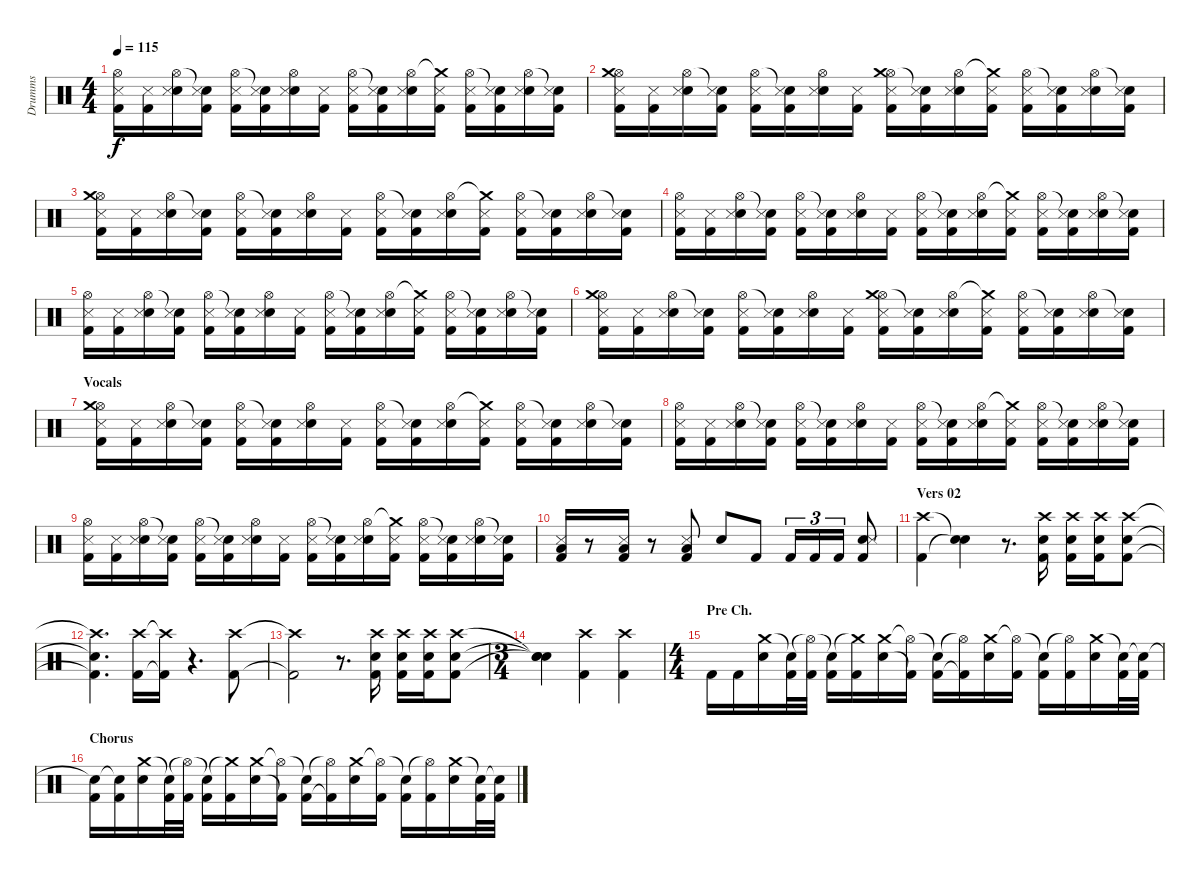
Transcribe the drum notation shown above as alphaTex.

\track ("Drumms" "Drumms") {instrument percussion}
\staff {score}
\articulation defaults
\ts (4 4)
\tempo 115
\clef neutral
\ks c
("Hi-Hat (open)" "Kick (hit) 2" "Snare (side stick) 3").16{dy f} ("Kick (hit) 2" "Snare (side stick) 3").16 ("Hi-Hat (open)" "Electric Snare (hit)" "Snare (side stick) 3").16 ("Snare (hit)"{t} "Kick (hit) 2" "Snare (side stick) 3").16 ("Hi-Hat (open)" "Kick (hit) 2" "Snare (side stick) 3").16 ("Snare (hit)"{t} "Kick (hit) 2" "Snare (side stick) 3").16 ("Hi-Hat (open)" "Electric Snare (hit)" "Snare (side stick) 3").16 ("Kick (hit) 2" "Snare (side stick) 3").16 ("Hi-Hat (open)" "Kick (hit) 2" "Snare (side stick) 3").16 ("Snare (hit)"{t} "Kick (hit) 2" "Snare (side stick) 3").16 ("Hi-Hat (open)" "Electric Snare (hit)" "Snare (side stick) 3").16 ("Crash medium (hit)"{t} "Kick (hit) 2" "Snare (side stick) 3").16 ("Hi-Hat (open)" "Kick (hit) 2" "Snare (side stick) 3").16 ("Snare (hit)"{t} "Kick (hit) 2" "Snare (side stick) 3").16 ("Hi-Hat (open)" "Electric Snare (hit)" "Snare (side stick) 3").16 ("Snare (hit)"{t} "Kick (hit) 2" "Snare (side stick) 3").16 |
("Hi-Hat (open)" "Crash medium (hit)" "Kick (hit) 2" "Snare (side stick) 3").16 ("Kick (hit) 2" "Snare (side stick) 3").16 ("Hi-Hat (open)" "Electric Snare (hit)" "Snare (side stick) 3").16 ("Snare (hit)"{t} "Kick (hit) 2" "Snare (side stick) 3").16 ("Hi-Hat (open)" "Kick (hit) 2" "Snare (side stick) 3").16 ("Snare (hit)"{t} "Kick (hit) 2" "Snare (side stick) 3").16 ("Hi-Hat (open)" "Electric Snare (hit)" "Snare (side stick) 3").16 ("Kick (hit) 2" "Snare (side stick) 3").16 ("Hi-Hat (open)" "Crash medium (hit)" "Kick (hit) 2" "Snare (side stick) 3").16 ("Snare (hit)"{t} "Kick (hit) 2" "Snare (side stick) 3").16 ("Hi-Hat (open)" "Electric Snare (hit)" "Snare (side stick) 3").16 ("Crash medium (hit)"{t} "Kick (hit) 2" "Snare (side stick) 3").16 ("Hi-Hat (open)" "Kick (hit) 2" "Snare (side stick) 3").16 ("Snare (hit)"{t} "Kick (hit) 2" "Snare (side stick) 3").16 ("Hi-Hat (open)" "Electric Snare (hit)" "Snare (side stick) 3").16 ("Snare (hit)"{t} "Kick (hit) 2" "Snare (side stick) 3").16 |
("Hi-Hat (open)" "Crash medium (hit)" "Kick (hit) 2" "Snare (side stick) 3").16 ("Kick (hit) 2" "Snare (side stick) 3").16 ("Hi-Hat (open)" "Electric Snare (hit)" "Snare (side stick) 3").16 ("Snare (hit)"{t} "Kick (hit) 2" "Snare (side stick) 3").16 ("Hi-Hat (open)" "Kick (hit) 2" "Snare (side stick) 3").16 ("Snare (hit)"{t} "Kick (hit) 2" "Snare (side stick) 3").16 ("Hi-Hat (open)" "Electric Snare (hit)" "Snare (side stick) 3").16 ("Kick (hit) 2" "Snare (side stick) 3").16 ("Hi-Hat (open)" "Kick (hit) 2" "Snare (side stick) 3").16 ("Snare (hit)"{t} "Kick (hit) 2" "Snare (side stick) 3").16 ("Hi-Hat (open)" "Electric Snare (hit)" "Snare (side stick) 3").16 ("Crash medium (hit)"{t} "Kick (hit) 2" "Snare (side stick) 3").16 ("Hi-Hat (open)" "Kick (hit) 2" "Snare (side stick) 3").16 ("Snare (hit)"{t} "Kick (hit) 2" "Snare (side stick) 3").16 ("Hi-Hat (open)" "Electric Snare (hit)" "Snare (side stick) 3").16 ("Snare (hit)"{t} "Kick (hit) 2" "Snare (side stick) 3").16 |
("Hi-Hat (open)" "Kick (hit) 2" "Snare (side stick) 3").16 ("Kick (hit) 2" "Snare (side stick) 3").16 ("Hi-Hat (open)" "Electric Snare (hit)" "Snare (side stick) 3").16 ("Snare (hit)"{t} "Kick (hit) 2" "Snare (side stick) 3").16 ("Hi-Hat (open)" "Kick (hit) 2" "Snare (side stick) 3").16 ("Snare (hit)"{t} "Kick (hit) 2" "Snare (side stick) 3").16 ("Hi-Hat (open)" "Electric Snare (hit)" "Snare (side stick) 3").16 ("Kick (hit) 2" "Snare (side stick) 3").16 ("Hi-Hat (open)" "Kick (hit) 2" "Snare (side stick) 3").16 ("Snare (hit)"{t} "Kick (hit) 2" "Snare (side stick) 3").16 ("Hi-Hat (open)" "Electric Snare (hit)" "Snare (side stick) 3").16 ("Crash medium (hit)"{t} "Kick (hit) 2" "Snare (side stick) 3").16 ("Hi-Hat (open)" "Kick (hit) 2" "Snare (side stick) 3").16 ("Snare (hit)"{t} "Kick (hit) 2" "Snare (side stick) 3").16 ("Hi-Hat (open)" "Electric Snare (hit)" "Snare (side stick) 3").16 ("Snare (hit)"{t} "Kick (hit) 2" "Snare (side stick) 3").16 |
("Hi-Hat (open)" "Kick (hit) 2" "Snare (side stick) 3").16 ("Kick (hit) 2" "Snare (side stick) 3").16 ("Hi-Hat (open)" "Electric Snare (hit)" "Snare (side stick) 3").16 ("Snare (hit)"{t} "Kick (hit) 2" "Snare (side stick) 3").16 ("Hi-Hat (open)" "Kick (hit) 2" "Snare (side stick) 3").16 ("Snare (hit)"{t} "Kick (hit) 2" "Snare (side stick) 3").16 ("Hi-Hat (open)" "Electric Snare (hit)" "Snare (side stick) 3").16 ("Kick (hit) 2" "Snare (side stick) 3").16 ("Hi-Hat (open)" "Kick (hit) 2" "Snare (side stick) 3").16 ("Snare (hit)"{t} "Kick (hit) 2" "Snare (side stick) 3").16 ("Hi-Hat (open)" "Electric Snare (hit)" "Snare (side stick) 3").16 ("Crash medium (hit)"{t} "Kick (hit) 2" "Snare (side stick) 3").16 ("Hi-Hat (open)" "Kick (hit) 2" "Snare (side stick) 3").16 ("Snare (hit)"{t} "Kick (hit) 2" "Snare (side stick) 3").16 ("Hi-Hat (open)" "Electric Snare (hit)" "Snare (side stick) 3").16 ("Snare (hit)"{t} "Kick (hit) 2" "Snare (side stick) 3").16 |
("Hi-Hat (open)" "Crash medium (hit)" "Kick (hit) 2" "Snare (side stick) 3").16 ("Kick (hit) 2" "Snare (side stick) 3").16 ("Hi-Hat (open)" "Electric Snare (hit)" "Snare (side stick) 3").16 ("Snare (hit)"{t} "Kick (hit) 2" "Snare (side stick) 3").16 ("Hi-Hat (open)" "Kick (hit) 2" "Snare (side stick) 3").16 ("Snare (hit)"{t} "Kick (hit) 2" "Snare (side stick) 3").16 ("Hi-Hat (open)" "Electric Snare (hit)" "Snare (side stick) 3").16 ("Kick (hit) 2" "Snare (side stick) 3").16 ("Hi-Hat (open)" "Crash medium (hit)" "Kick (hit) 2" "Snare (side stick) 3").16 ("Snare (hit)"{t} "Kick (hit) 2" "Snare (side stick) 3").16 ("Hi-Hat (open)" "Electric Snare (hit)" "Snare (side stick) 3").16 ("Crash medium (hit)"{t} "Kick (hit) 2" "Snare (side stick) 3").16 ("Hi-Hat (open)" "Kick (hit) 2" "Snare (side stick) 3").16 ("Snare (hit)"{t} "Kick (hit) 2" "Snare (side stick) 3").16 ("Hi-Hat (open)" "Electric Snare (hit)" "Snare (side stick) 3").16 ("Snare (hit)"{t} "Kick (hit) 2" "Snare (side stick) 3").16 |
\section ("" "Vocals")
("Hi-Hat (open)" "Crash medium (hit)" "Kick (hit) 2" "Snare (side stick) 3").16 ("Kick (hit) 2" "Snare (side stick) 3").16 ("Hi-Hat (open)" "Electric Snare (hit)" "Snare (side stick) 3").16 ("Snare (hit)"{t} "Kick (hit) 2" "Snare (side stick) 3").16 ("Hi-Hat (open)" "Kick (hit) 2" "Snare (side stick) 3").16 ("Snare (hit)"{t} "Kick (hit) 2" "Snare (side stick) 3").16 ("Hi-Hat (open)" "Electric Snare (hit)" "Snare (side stick) 3").16 ("Kick (hit) 2" "Snare (side stick) 3").16 ("Hi-Hat (open)" "Kick (hit) 2" "Snare (side stick) 3").16 ("Snare (hit)"{t} "Kick (hit) 2" "Snare (side stick) 3").16 ("Hi-Hat (open)" "Electric Snare (hit)" "Snare (side stick) 3").16 ("Crash medium (hit)"{t} "Kick (hit) 2" "Snare (side stick) 3").16 ("Hi-Hat (open)" "Kick (hit) 2" "Snare (side stick) 3").16 ("Snare (hit)"{t} "Kick (hit) 2" "Snare (side stick) 3").16 ("Hi-Hat (open)" "Electric Snare (hit)" "Snare (side stick) 3").16 ("Snare (hit)"{t} "Kick (hit) 2" "Snare (side stick) 3").16 |
("Hi-Hat (open)" "Kick (hit) 2" "Snare (side stick) 3").16 ("Kick (hit) 2" "Snare (side stick) 3").16 ("Hi-Hat (open)" "Electric Snare (hit)" "Snare (side stick) 3").16 ("Snare (hit)"{t} "Kick (hit) 2" "Snare (side stick) 3").16 ("Hi-Hat (open)" "Kick (hit) 2" "Snare (side stick) 3").16 ("Snare (hit)"{t} "Kick (hit) 2" "Snare (side stick) 3").16 ("Hi-Hat (open)" "Electric Snare (hit)" "Snare (side stick) 3").16 ("Kick (hit) 2" "Snare (side stick) 3").16 ("Hi-Hat (open)" "Kick (hit) 2" "Snare (side stick) 3").16 ("Snare (hit)"{t} "Kick (hit) 2" "Snare (side stick) 3").16 ("Hi-Hat (open)" "Electric Snare (hit)" "Snare (side stick) 3").16 ("Crash medium (hit)"{t} "Kick (hit) 2" "Snare (side stick) 3").16 ("Hi-Hat (open)" "Kick (hit) 2" "Snare (side stick) 3").16 ("Snare (hit)"{t} "Kick (hit) 2" "Snare (side stick) 3").16 ("Hi-Hat (open)" "Electric Snare (hit)" "Snare (side stick) 3").16 ("Snare (hit)"{t} "Kick (hit) 2" "Snare (side stick) 3").16 |
("Hi-Hat (open)" "Kick (hit) 2" "Snare (side stick) 3").16 ("Kick (hit) 2" "Snare (side stick) 3").16 ("Hi-Hat (open)" "Electric Snare (hit)" "Snare (side stick) 3").16 ("Snare (hit)"{t} "Kick (hit) 2" "Snare (side stick) 3").16 ("Hi-Hat (open)" "Kick (hit) 2" "Snare (side stick) 3").16 ("Snare (hit)"{t} "Kick (hit) 2" "Snare (side stick) 3").16 ("Hi-Hat (open)" "Electric Snare (hit)" "Snare (side stick) 3").16 ("Kick (hit) 2" "Snare (side stick) 3").16 ("Hi-Hat (open)" "Kick (hit) 2" "Snare (side stick) 3").16 ("Snare (hit)"{t} "Kick (hit) 2" "Snare (side stick) 3").16 ("Hi-Hat (open)" "Electric Snare (hit)" "Snare (side stick) 3").16 ("Crash medium (hit)"{t} "Kick (hit) 2" "Snare (side stick) 3").16 ("Hi-Hat (open)" "Kick (hit) 2" "Snare (side stick) 3").16 ("Snare (hit)"{t} "Kick (hit) 2" "Snare (side stick) 3").16 ("Hi-Hat (open)" "Electric Snare (hit)" "Snare (side stick) 3").16 ("Snare (hit)"{t} "Kick (hit) 2" "Snare (side stick) 3").16 |
("Low Floor Tom (hit)" "Kick (hit) 2" "Snare (side stick) 3").16 r.8 ("Low Floor Tom (hit)" "Kick (hit) 2" "Snare (side stick) 3").16 r.8 ("Low Floor Tom (hit)" "Kick (hit) 2" "Snare (side stick) 3").8 "Electric Snare (hit)".8 "Kick (hit) 2".8 "Kick (hit) 2".16{tu (3 2)} "Kick (hit) 2".16{tu (3 2)} "Kick (hit) 2".16{tu (3 2)} ("Electric Snare (hit)" "Snare (side stick) 3" "Kick (hit) 2").8 |
\section ("" "Vers 02")
("Crash high (hit)" "Kick (hit) 2").4 ("Snare (hit)"{t} "Snare (hit)"{t}).4 r.8{d} ("Crash high (hit)" "Kick (hit) 2" "Snare (hit) 2").16 ("Crash high (hit)" "Kick (hit) 2" "Snare (hit) 2").16 ("Crash high (hit)" "Kick (hit) 2" "Snare (hit) 2").16 ("Crash high (hit)" "Kick (hit) 2" "Snare (hit) 2").8 |
("Crash high (hit)"{t} "Kick (hit) 2"{t} "Snare (hit)"{t}).4{d} ("Crash high (hit)" "Kick (hit) 2").16 ("Crash high (hit)"{t} "Kick (hit) 2"{t}).16 r.4{d} ("Crash high (hit)" "Kick (hit) 2").8 |
("Crash high (hit)"{t} "Kick (hit) 2"{t}).2 r.8{d} ("Crash high (hit)" "Kick (hit) 2" "Snare (hit) 2").16 ("Crash high (hit)" "Kick (hit) 2" "Snare (hit) 2").16 ("Crash high (hit)" "Kick (hit) 2" "Snare (hit) 2").16 ("Crash high (hit)" "Kick (hit) 2" "Snare (hit) 2").8 |
\ts (3 4)
("Snare (hit)"{t} "Snare (hit)"{t} "Snare (hit)"{t}).4 ("Crash high (hit)" "Kick (hit) 2").4 ("Crash high (hit)" "Kick (hit) 2").4 |
\ts (4 4)
\section ("" "Pre Ch.")
"Kick (hit) 2".16 "Kick (hit) 2".16 ("Crash medium (hit)" "Electric Snare (hit)").16 ("Snare (hit)"{t} "Kick (hit) 2").32 ("Hi-Hat (open)"{t} "Kick (hit) 2").32 ("Snare (hit)"{t} "Kick (hit) 2").16 ("Crash medium (hit)"{t} "Kick (hit) 2").16 ("Crash medium (hit)" "Electric Snare (hit)").16 ("Hi-Hat (open)"{t} "Kick (hit) 2"{t}).16 ("Snare (hit)"{t} "Kick (hit) 2").16 ("Hi-Hat (open)"{t} "Kick (hit) 2"{t}).16 ("Crash medium (hit)" "Electric Snare (hit)").16 ("Hi-Hat (open)"{t} "Kick (hit) 2").16 ("Snare (hit)"{t} "Kick (hit) 2").16 ("Hi-Hat (open)"{t} "Kick (hit) 2").16 ("Crash medium (hit)" "Electric Snare (hit)").16 ("Snare (hit)"{t} "Kick (hit) 2").32 ("Snare (hit)"{t} "Kick (hit) 2").32 |
\section ("" "Chorus")
("Snare (hit)"{t} "Kick (hit) 2").16 ("Snare (hit)"{t} "Kick (hit) 2").16 ("Crash medium (hit)" "Electric Snare (hit)").16 ("Snare (hit)"{t} "Kick (hit) 2").32 ("Hi-Hat (open)"{t} "Kick (hit) 2").32 ("Snare (hit)"{t} "Kick (hit) 2").16 ("Crash medium (hit)"{t} "Kick (hit) 2").16 ("Crash medium (hit)" "Electric Snare (hit)").16 ("Hi-Hat (open)"{t} "Kick (hit) 2"{t}).16 ("Snare (hit)"{t} "Kick (hit) 2").16 ("Hi-Hat (open)"{t} "Kick (hit) 2"{t}).16 ("Crash medium (hit)" "Electric Snare (hit)").16 ("Hi-Hat (open)"{t} "Kick (hit) 2").16 ("Snare (hit)"{t} "Kick (hit) 2").16 ("Hi-Hat (open)"{t} "Kick (hit) 2").16 ("Crash medium (hit)" "Electric Snare (hit)").16 ("Snare (hit)"{t} "Kick (hit) 2").32 ("Snare (hit)"{t} "Kick (hit) 2").32
